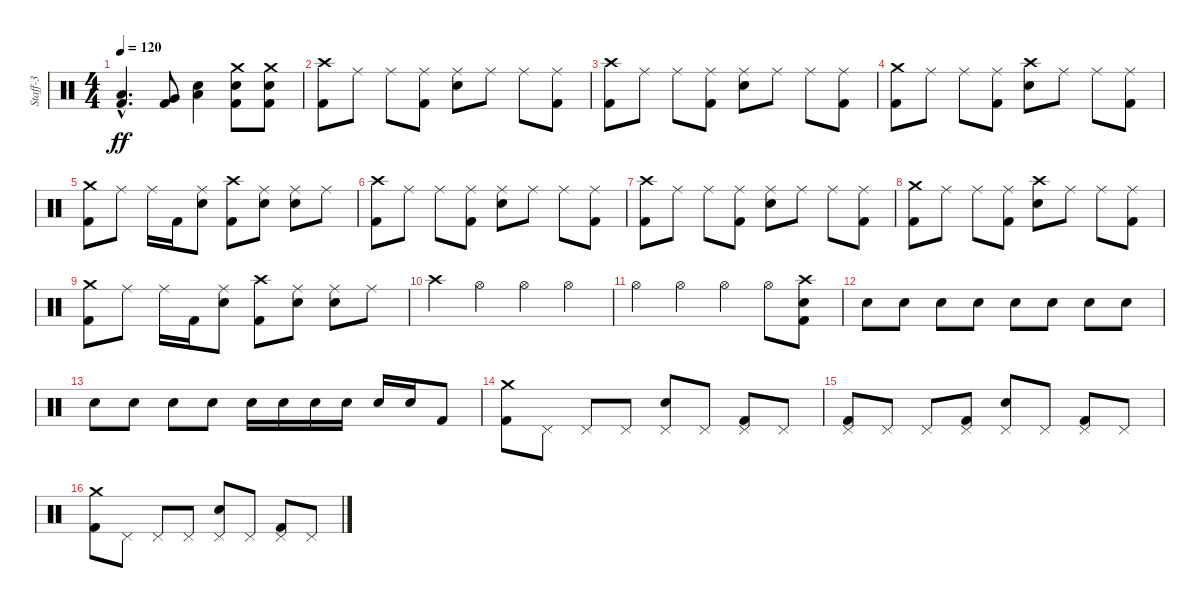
\track ("Staff-3" "Staff-3") {instrument percussion}
\staff {score}
\articulation defaults
\ts (4 4)
\tempo 120
\clef neutral
\ks c
("Kick (hit) 2"{hac} "Low Tom (hit)"{hac}).4{d dy ff balance 8} ("Kick (hit) 2" "Very Low Tom (hit)").8{balance 1} ("Snare (hit) 2" "Low Floor Tom (hit)").4{balance 15} ("Kick (hit) 2" "Snare (hit) 2" "Crash medium (hit)").8{balance 8} ("Kick (hit) 2" "Snare (hit) 2" "Crash medium (hit)").8 |
("Kick (hit) 2" "Crash high (hit)").8 "Ride (middle)".8 "Ride (middle)".8 ("Kick (hit) 2" "Ride (middle)").8 ("Snare (hit) 2" "Ride (middle)").8 "Ride (middle)".8 "Ride (middle)".8 ("Kick (hit) 2" "Ride (middle)").8 |
("Kick (hit) 2" "Crash high (hit)").8 "Ride (middle)".8 "Ride (middle)".8 ("Kick (hit) 2" "Ride (middle)").8 ("Snare (hit) 2" "Ride (middle)").8 "Ride (middle)".8 "Ride (middle)".8 ("Kick (hit) 2" "Ride (middle)").8 |
("Kick (hit) 2" "Crash medium (hit)").8 "Ride (middle)".8 "Ride (middle)".8 ("Kick (hit) 2" "Ride (middle)").8 ("Snare (hit) 2" "Crash high (hit)").8 "Ride (middle)".8 "Ride (middle)".8 ("Kick (hit) 2" "Ride (middle)").8 |
("Kick (hit) 2" "Crash medium (hit)").8 "Ride (middle)".8 "Ride (middle)".16 "Kick (hit) 2".16 ("Snare (hit) 2" "Ride (middle)").8 ("Kick (hit) 2" "Crash high (hit)").8 ("Snare (hit) 2" "Ride (middle)").8 ("Snare (hit) 2" "Ride (middle)").8 "Ride (middle)".8 |
("Kick (hit) 2" "Crash high (hit)").8 "Ride (middle)".8 "Ride (middle)".8 ("Kick (hit) 2" "Ride (middle)").8 ("Snare (hit) 2" "Ride (middle)").8 "Ride (middle)".8 "Ride (middle)".8 ("Kick (hit) 2" "Ride (middle)").8 |
("Kick (hit) 2" "Crash high (hit)").8 "Ride (middle)".8 "Ride (middle)".8 ("Kick (hit) 2" "Ride (middle)").8 ("Snare (hit) 2" "Ride (middle)").8 "Ride (middle)".8 "Ride (middle)".8 ("Kick (hit) 2" "Ride (middle)").8 |
("Kick (hit) 2" "Crash medium (hit)").8 "Ride (middle)".8 "Ride (middle)".8 ("Kick (hit) 2" "Ride (middle)").8 ("Snare (hit) 2" "Crash high (hit)").8 "Ride (middle)".8 "Ride (middle)".8 ("Kick (hit) 2" "Ride (middle)").8 |
("Kick (hit) 2" "Crash medium (hit)").8 "Ride (middle)".8 "Ride (middle)".16 "Kick (hit) 2".16 ("Snare (hit) 2" "Ride (middle)").8 ("Kick (hit) 2" "Crash high (hit)").8 ("Snare (hit) 2" "Ride (middle)").8 ("Snare (hit) 2" "Ride (middle)").8 "Ride (middle)".8 |
"Crash high (hit)".4 "Hi-Hat (open)".4 "Hi-Hat (open)".4 "Hi-Hat (open)".4 |
"Hi-Hat (open)".4 "Hi-Hat (open)".4 "Hi-Hat (open)".4 "Hi-Hat (open)".8 ("Kick (hit) 2" "Snare (hit) 2" "Crash high (hit)").8 |
"Snare (hit) 2".8{volume 4} "Snare (hit) 2".8{volume 5} "Snare (hit) 2".8{volume 6} "Snare (hit) 2".8{volume 7} "Snare (hit) 2".8{volume 8} "Snare (hit) 2".8{volume 9} "Snare (hit) 2".8{volume 10} "Snare (hit) 2".8{volume 11} |
"Snare (hit) 2".8{volume 12} "Snare (hit) 2".8{volume 13} "Snare (hit) 2".8{volume 14} "Snare (hit) 2".8{volume 15} "Snare (hit) 2".16{volume 16} "Snare (hit) 2".16 "Snare (hit) 2".16 "Snare (hit) 2".16 "Snare (hit) 2".16 "Snare (hit) 2".16 "Kick (hit) 2".8 |
("Kick (hit) 2" "Crash medium (hit)").8{volume 16} "Pedal Hi-Hat (hit)".8 "Pedal Hi-Hat (hit)".8 "Pedal Hi-Hat (hit)".8 ("Snare (hit) 2" "Pedal Hi-Hat (hit)").8 "Pedal Hi-Hat (hit)".8 ("Kick (hit) 2" "Pedal Hi-Hat (hit)").8 "Pedal Hi-Hat (hit)".8 |
("Kick (hit) 2" "Pedal Hi-Hat (hit)").8 "Pedal Hi-Hat (hit)".8 "Pedal Hi-Hat (hit)".8 ("Kick (hit) 2" "Pedal Hi-Hat (hit)").8 ("Snare (hit) 2" "Pedal Hi-Hat (hit)").8 "Pedal Hi-Hat (hit)".8 ("Kick (hit) 2" "Pedal Hi-Hat (hit)").8 "Pedal Hi-Hat (hit)".8 |
("Kick (hit) 2" "Crash medium (hit)").8 "Pedal Hi-Hat (hit)".8 "Pedal Hi-Hat (hit)".8 "Pedal Hi-Hat (hit)".8 ("Snare (hit) 2" "Pedal Hi-Hat (hit)").8 "Pedal Hi-Hat (hit)".8 ("Kick (hit) 2" "Pedal Hi-Hat (hit)").8 "Pedal Hi-Hat (hit)".8
